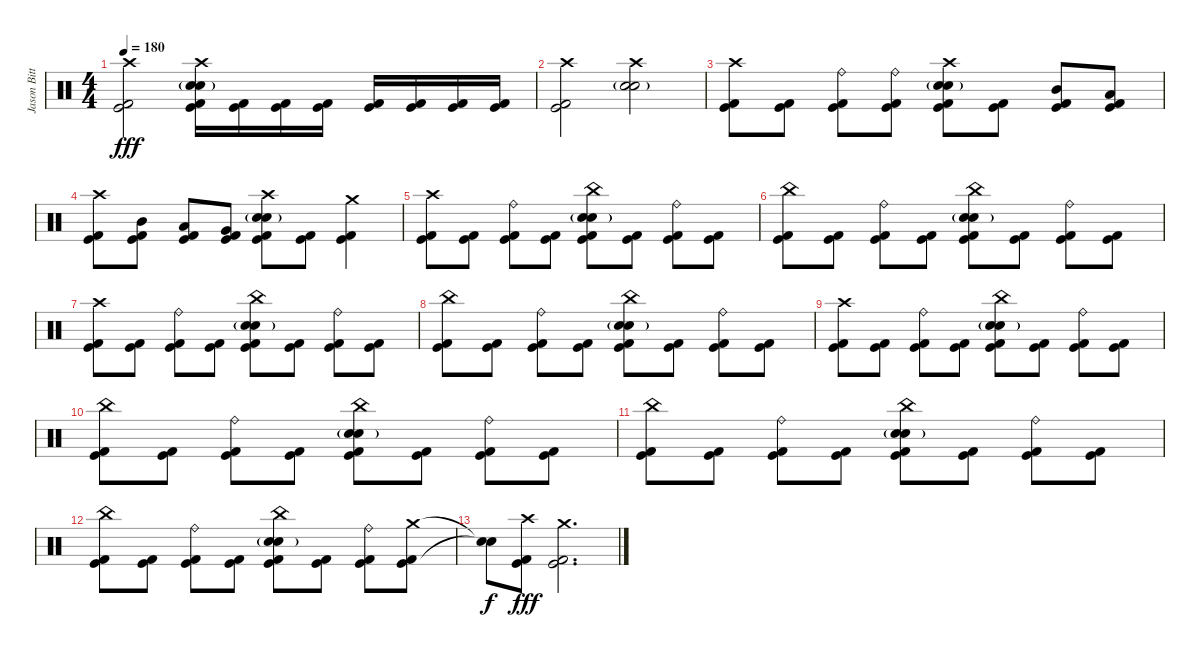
\track ("Jason Bittner" "Jason Bitt") {instrument percussion}
\staff {score}
\articulation defaults
\ts (4 4)
\tempo 180
\clef neutral
\ks c
("Crash high (hit)" "Kick (hit)" "Kick (hit) 2").2{dy fff} ("Crash high (hit)" "Snare (hit) 2"{g} "Electric Snare (hit)" "Kick (hit)" "Kick (hit) 2").16 ("Kick (hit)" "Kick (hit) 2").16 ("Kick (hit)" "Kick (hit) 2").16 ("Kick (hit)" "Kick (hit) 2").16 ("Kick (hit)" "Kick (hit) 2").16 ("Kick (hit)" "Kick (hit) 2").16 ("Kick (hit)" "Kick (hit) 2").16 ("Kick (hit)" "Kick (hit) 2").16 |
("Crash high (hit)" "Kick (hit)" "Kick (hit) 2").2 ("Crash high (hit)" "Snare (hit) 2"{g} "Electric Snare (hit)").2 |
("Crash high (hit)" "Kick (hit)" "Kick (hit) 2").8 ("Kick (hit)" "Kick (hit) 2").8 ("Ride (bell)" "Kick (hit)" "Kick (hit) 2").8 ("Ride (bell)" "Kick (hit)" "Kick (hit) 2").8 ("Crash high (hit)" "Snare (hit) 2"{g} "Electric Snare (hit)" "Kick (hit)" "Kick (hit) 2").8 ("Kick (hit)" "Kick (hit) 2").8 ("Mid Tom (hit)" "Kick (hit)" "Kick (hit) 2").8 ("Low Tom (hit)" "Kick (hit)" "Kick (hit) 2").8 |
("Crash high (hit)" "Kick (hit)" "Kick (hit) 2").8 ("Mid Tom (hit)" "Kick (hit)" "Kick (hit) 2").8 ("Low Tom (hit)" "Kick (hit)" "Kick (hit) 2").8 ("Very Low Tom (hit)" "Kick (hit)" "Kick (hit) 2").8 ("Crash high (hit)" "Snare (hit) 2"{g} "Electric Snare (hit)" "Kick (hit)" "Kick (hit) 2").8 ("Kick (hit)" "Kick (hit) 2").8 ("Crash medium (hit)" "Kick (hit)" "Kick (hit) 2").4 |
("Crash high (hit)" "Kick (hit)" "Kick (hit) 2").8 ("Kick (hit)" "Kick (hit) 2").8 ("Ride (bell)" "Kick (hit)" "Kick (hit) 2").8 ("Kick (hit)" "Kick (hit) 2").8 ("China (hit)" "Snare (hit) 2"{g} "Electric Snare (hit)" "Kick (hit)" "Kick (hit) 2").8 ("Kick (hit)" "Kick (hit) 2").8 ("Ride (bell)" "Kick (hit)" "Kick (hit) 2").8 ("Kick (hit)" "Kick (hit) 2").8 |
("China (hit)" "Kick (hit)" "Kick (hit) 2").8 ("Kick (hit)" "Kick (hit) 2").8 ("Ride (bell)" "Kick (hit)" "Kick (hit) 2").8 ("Kick (hit)" "Kick (hit) 2").8 ("China (hit)" "Snare (hit) 2"{g} "Electric Snare (hit)" "Kick (hit)" "Kick (hit) 2").8 ("Kick (hit)" "Kick (hit) 2").8 ("Ride (bell)" "Kick (hit)" "Kick (hit) 2").8 ("Kick (hit)" "Kick (hit) 2").8 |
("Crash high (hit)" "Kick (hit)" "Kick (hit) 2").8 ("Kick (hit)" "Kick (hit) 2").8 ("Ride (bell)" "Kick (hit)" "Kick (hit) 2").8 ("Kick (hit)" "Kick (hit) 2").8 ("China (hit)" "Snare (hit) 2"{g} "Electric Snare (hit)" "Kick (hit)" "Kick (hit) 2").8 ("Kick (hit)" "Kick (hit) 2").8 ("Ride (bell)" "Kick (hit)" "Kick (hit) 2").8 ("Kick (hit)" "Kick (hit) 2").8 |
("China (hit)" "Kick (hit)" "Kick (hit) 2").8 ("Kick (hit)" "Kick (hit) 2").8 ("Ride (bell)" "Kick (hit)" "Kick (hit) 2").8 ("Kick (hit)" "Kick (hit) 2").8 ("China (hit)" "Snare (hit) 2"{g} "Electric Snare (hit)" "Kick (hit)" "Kick (hit) 2").8 ("Kick (hit)" "Kick (hit) 2").8 ("Ride (bell)" "Kick (hit)" "Kick (hit) 2").8 ("Kick (hit)" "Kick (hit) 2").8 |
("Crash high (hit)" "Kick (hit)" "Kick (hit) 2").8 ("Kick (hit)" "Kick (hit) 2").8 ("Ride (bell)" "Kick (hit)" "Kick (hit) 2").8 ("Kick (hit)" "Kick (hit) 2").8 ("China (hit)" "Snare (hit) 2"{g} "Electric Snare (hit)" "Kick (hit)" "Kick (hit) 2").8 ("Kick (hit)" "Kick (hit) 2").8 ("Ride (bell)" "Kick (hit)" "Kick (hit) 2").8 ("Kick (hit)" "Kick (hit) 2").8 |
("China (hit)" "Kick (hit)" "Kick (hit) 2").8 ("Kick (hit)" "Kick (hit) 2").8 ("Ride (bell)" "Kick (hit)" "Kick (hit) 2").8 ("Kick (hit)" "Kick (hit) 2").8 ("China (hit)" "Snare (hit) 2"{g} "Electric Snare (hit)" "Kick (hit)" "Kick (hit) 2").8 ("Kick (hit)" "Kick (hit) 2").8 ("Ride (bell)" "Kick (hit)" "Kick (hit) 2").8 ("Kick (hit)" "Kick (hit) 2").8 |
("China (hit)" "Kick (hit)" "Kick (hit) 2").8 ("Kick (hit)" "Kick (hit) 2").8 ("Ride (bell)" "Kick (hit)" "Kick (hit) 2").8 ("Kick (hit)" "Kick (hit) 2").8 ("China (hit)" "Snare (hit) 2"{g} "Electric Snare (hit)" "Kick (hit)" "Kick (hit) 2").8 ("Kick (hit)" "Kick (hit) 2").8 ("Ride (bell)" "Kick (hit)" "Kick (hit) 2").8 ("Kick (hit)" "Kick (hit) 2").8 |
("China (hit)" "Kick (hit)" "Kick (hit) 2").8 ("Kick (hit)" "Kick (hit) 2").8 ("Ride (bell)" "Kick (hit)" "Kick (hit) 2").8 ("Kick (hit)" "Kick (hit) 2").8 ("China (hit)" "Snare (hit) 2"{g} "Electric Snare (hit)" "Kick (hit)" "Kick (hit) 2").8 ("Kick (hit)" "Kick (hit) 2").8 ("Ride (bell)" "Kick (hit)" "Kick (hit) 2").8 ("Crash medium (hit)" "Kick (hit)" "Kick (hit) 2").8 |
("Snare (hit)"{t} "Snare (hit)"{t}).8{dy f} ("Crash high (hit)" "Kick (hit)" "Kick (hit) 2").8{dy fff} ("Crash medium (hit)" "Kick (hit)" "Kick (hit) 2").2{d}
